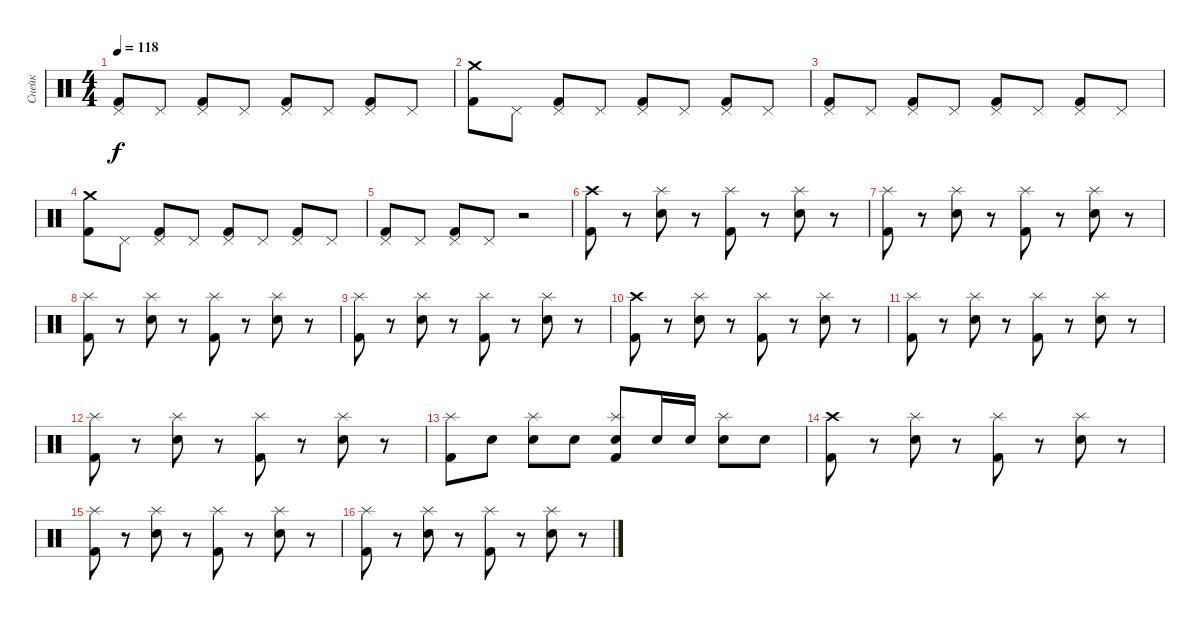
\track ("Снейк" "Снейк") {instrument percussion}
\staff {score}
\articulation defaults
\ts (4 4)
\tempo 118
\clef neutral
\ks c
("Pedal Hi-Hat (hit)" "Kick (hit) 2").8{dy f} "Pedal Hi-Hat (hit)".8 ("Pedal Hi-Hat (hit)" "Kick (hit) 2").8 "Pedal Hi-Hat (hit)".8 ("Pedal Hi-Hat (hit)" "Kick (hit) 2").8 "Pedal Hi-Hat (hit)".8 ("Pedal Hi-Hat (hit)" "Kick (hit) 2").8 "Pedal Hi-Hat (hit)".8 |
("Crash medium (hit)" "Kick (hit) 2").8 "Pedal Hi-Hat (hit)".8 ("Pedal Hi-Hat (hit)" "Kick (hit) 2").8 "Pedal Hi-Hat (hit)".8 ("Pedal Hi-Hat (hit)" "Kick (hit) 2").8 "Pedal Hi-Hat (hit)".8 ("Pedal Hi-Hat (hit)" "Kick (hit) 2").8 "Pedal Hi-Hat (hit)".8 |
("Pedal Hi-Hat (hit)" "Kick (hit) 2").8 "Pedal Hi-Hat (hit)".8 ("Pedal Hi-Hat (hit)" "Kick (hit) 2").8 "Pedal Hi-Hat (hit)".8 ("Pedal Hi-Hat (hit)" "Kick (hit) 2").8 "Pedal Hi-Hat (hit)".8 ("Pedal Hi-Hat (hit)" "Kick (hit) 2").8 "Pedal Hi-Hat (hit)".8 |
("Crash medium (hit)" "Kick (hit) 2").8 "Pedal Hi-Hat (hit)".8 ("Pedal Hi-Hat (hit)" "Kick (hit) 2").8 "Pedal Hi-Hat (hit)".8 ("Pedal Hi-Hat (hit)" "Kick (hit) 2").8 "Pedal Hi-Hat (hit)".8 ("Pedal Hi-Hat (hit)" "Kick (hit) 2").8 "Pedal Hi-Hat (hit)".8 |
("Pedal Hi-Hat (hit)" "Kick (hit) 2").8 "Pedal Hi-Hat (hit)".8 ("Pedal Hi-Hat (hit)" "Kick (hit) 2").8 "Pedal Hi-Hat (hit)".8 r.2 |
("Crash high (hit)" "Kick (hit) 2").8 r.8 ("Splash (hit)" "Electric Snare (hit)").8 r.8 ("Splash (hit)" "Kick (hit) 2").8 r.8 ("Splash (hit)" "Electric Snare (hit)").8 r.8 |
("Splash (hit)" "Kick (hit) 2").8 r.8 ("Splash (hit)" "Electric Snare (hit)").8 r.8 ("Splash (hit)" "Kick (hit) 2").8 r.8 ("Splash (hit)" "Electric Snare (hit)").8 r.8 |
("Splash (hit)" "Kick (hit) 2").8 r.8 ("Splash (hit)" "Electric Snare (hit)").8 r.8 ("Splash (hit)" "Kick (hit) 2").8 r.8 ("Splash (hit)" "Electric Snare (hit)").8 r.8 |
("Splash (hit)" "Kick (hit) 2").8 r.8 ("Splash (hit)" "Electric Snare (hit)").8 r.8 ("Splash (hit)" "Kick (hit) 2").8 r.8 ("Splash (hit)" "Electric Snare (hit)").8 r.8 |
("Crash high (hit)" "Kick (hit) 2").8 r.8 ("Splash (hit)" "Electric Snare (hit)").8 r.8 ("Splash (hit)" "Kick (hit) 2").8 r.8 ("Splash (hit)" "Electric Snare (hit)").8 r.8 |
("Splash (hit)" "Kick (hit) 2").8 r.8 ("Splash (hit)" "Electric Snare (hit)").8 r.8 ("Splash (hit)" "Kick (hit) 2").8 r.8 ("Splash (hit)" "Electric Snare (hit)").8 r.8 |
("Splash (hit)" "Kick (hit) 2").8 r.8 ("Splash (hit)" "Electric Snare (hit)").8 r.8 ("Splash (hit)" "Kick (hit) 2").8 r.8 ("Splash (hit)" "Electric Snare (hit)").8 r.8 |
("Splash (hit)" "Kick (hit) 2").8 "Electric Snare (hit)".8 ("Splash (hit)" "Electric Snare (hit)").8 "Electric Snare (hit)".8 ("Splash (hit)" "Electric Snare (hit)" "Kick (hit) 2").8 "Electric Snare (hit)".16 "Electric Snare (hit)".16 ("Splash (hit)" "Electric Snare (hit)").8 "Electric Snare (hit)".8 |
("Crash high (hit)" "Kick (hit) 2").8 r.8 ("Splash (hit)" "Electric Snare (hit)").8 r.8 ("Splash (hit)" "Kick (hit) 2").8 r.8 ("Splash (hit)" "Electric Snare (hit)").8 r.8 |
("Splash (hit)" "Kick (hit) 2").8 r.8 ("Splash (hit)" "Electric Snare (hit)").8 r.8 ("Splash (hit)" "Kick (hit) 2").8 r.8 ("Splash (hit)" "Electric Snare (hit)").8 r.8 |
("Splash (hit)" "Kick (hit) 2").8 r.8 ("Splash (hit)" "Electric Snare (hit)").8 r.8 ("Splash (hit)" "Kick (hit) 2").8 r.8 ("Splash (hit)" "Electric Snare (hit)").8 r.8
